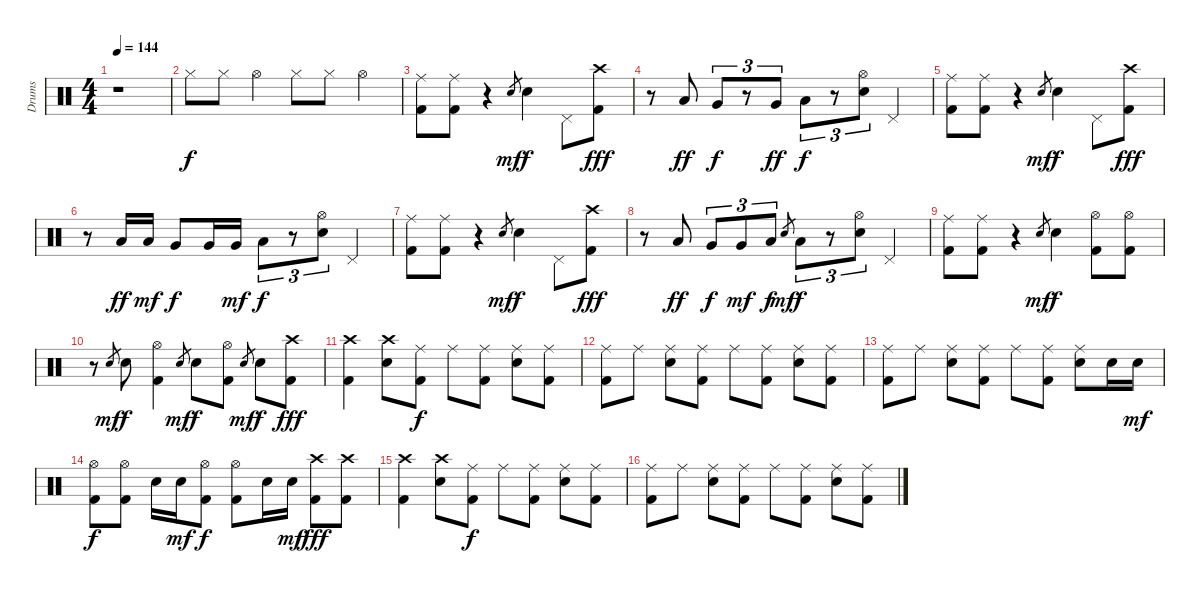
\track ("Drums" "Drums") {instrument percussion}
\staff {score}
\articulation defaults
\ts (4 4)
\tempo 144
\clef neutral
\ks c
r.1{dy f} |
"Hi-Hat (closed)".8 "Hi-Hat (closed)".8 "Hi-Hat (open)".4 "Hi-Hat (closed)".8 "Hi-Hat (closed)".8 "Hi-Hat (open)".4 |
("Ride (middle)" "Kick (hit) 2").8 ("Ride (middle)" "Kick (hit) 2").8 r.4 "Snare (hit)".8{gr dy mf} "Snare (hit) 2".4{dy f} "Pedal Hi-Hat (hit)".8 ("Crash high (hit)" "Kick (hit) 2").8{dy fff} |
r.8 "Low Tom (hit)".8{dy ff} "Very Low Tom (hit)".8{tu (3 2) dy f} r.8{tu (3 2)} "Very Low Tom (hit)".8{tu (3 2) dy ff} "Low Floor Tom (hit)".8{tu (3 2) dy f} r.8{tu (3 2)} ("Hi-Hat (open)" "Snare (hit) 2").8{tu (3 2)} "Pedal Hi-Hat (hit)".4 |
("Ride (middle)" "Kick (hit) 2").8 ("Ride (middle)" "Kick (hit) 2").8 r.4 "Snare (hit)".8{gr dy mf} "Snare (hit) 2".4{dy f} "Pedal Hi-Hat (hit)".8 ("Crash high (hit)" "Kick (hit) 2").8{dy fff} |
r.8 "Low Tom (hit)".16{dy ff} "Low Tom (hit)".16{dy mf} "Very Low Tom (hit)".8{dy f} "Very Low Tom (hit)".16 "Very Low Tom (hit)".16{dy mf} "Low Floor Tom (hit)".8{tu (3 2) dy f} r.8{tu (3 2)} ("Hi-Hat (open)" "Snare (hit) 2").8{tu (3 2)} "Pedal Hi-Hat (hit)".4 |
("Ride (middle)" "Kick (hit) 2").8 ("Ride (middle)" "Kick (hit) 2").8 r.4 "Snare (hit)".8{gr dy mf} "Snare (hit) 2".4{dy f} "Pedal Hi-Hat (hit)".8 ("Crash high (hit)" "Kick (hit) 2").8{dy fff} |
r.8 "Low Tom (hit)".8{dy ff} "Very Low Tom (hit)".8{tu (3 2) dy f} "Very Low Tom (hit)".8{tu (3 2) dy mf} "Low Floor Tom (hit)".8{tu (3 2) dy f} "Snare (hit)".8{gr dy mf} "Low Floor Tom (hit)".8{tu (3 2) dy f} r.8{tu (3 2)} ("Hi-Hat (open)" "Snare (hit) 2").8{tu (3 2)} "Pedal Hi-Hat (hit)".4 |
("Ride (middle)" "Kick (hit) 2").8 ("Ride (middle)" "Kick (hit) 2").8 r.4 "Snare (hit)".8{gr dy mf} "Snare (hit) 2".4{dy f} ("Hi-Hat (open)" "Kick (hit) 2").8 ("Hi-Hat (open)" "Kick (hit) 2").8 |
r.8 "Snare (hit)".8{gr dy mf} "Snare (hit) 2".8{dy f} ("Hi-Hat (open)" "Kick (hit) 2").4 "Snare (hit)".8{gr dy mf} "Snare (hit) 2".8{dy f} ("Hi-Hat (open)" "Kick (hit) 2").8 "Snare (hit)".8{gr dy mf} "Snare (hit) 2".8{dy f} ("Crash high (hit)" "Kick (hit) 2").8{dy fff} |
("Crash high (hit)" "Kick (hit) 2").4 ("Crash high (hit)" "Snare (hit) 2").8 ("Ride (middle)" "Kick (hit) 2").8{dy f} "Ride (middle)".8 ("Ride (middle)" "Kick (hit) 2").8 ("Ride (middle)" "Snare (hit) 2").8 ("Ride (middle)" "Kick (hit) 2").8 |
("Ride (middle)" "Kick (hit) 2").8 "Ride (middle)".8 ("Ride (middle)" "Snare (hit) 2").8 ("Ride (middle)" "Kick (hit) 2").8 "Ride (middle)".8 ("Ride (middle)" "Kick (hit) 2").8 ("Ride (middle)" "Snare (hit) 2").8 ("Ride (middle)" "Kick (hit) 2").8 |
("Ride (middle)" "Kick (hit) 2").8 "Ride (middle)".8 ("Ride (middle)" "Snare (hit) 2").8 ("Ride (middle)" "Kick (hit) 2").8 "Ride (middle)".8 ("Ride (middle)" "Kick (hit) 2").8 ("Ride (middle)" "Snare (hit) 2").8 "Snare (hit) 2".16 "Snare (hit) 2".16{dy mf} |
("Hi-Hat (open)" "Kick (hit) 2").8{dy f} ("Hi-Hat (open)" "Kick (hit) 2").8 "Snare (hit) 2".16 "Snare (hit) 2".16{dy mf} ("Hi-Hat (open)" "Kick (hit) 2").8{dy f} ("Hi-Hat (open)" "Kick (hit) 2").8 "Snare (hit) 2".16 "Snare (hit) 2".16{dy mf} ("Crash high (hit)" "Kick (hit) 2").8{dy fff} ("Crash high (hit)" "Kick (hit) 2").8 |
("Crash high (hit)" "Kick (hit) 2").4 ("Crash high (hit)" "Snare (hit) 2").8 ("Ride (middle)" "Kick (hit) 2").8{dy f} "Ride (middle)".8 ("Ride (middle)" "Kick (hit) 2").8 ("Ride (middle)" "Snare (hit) 2").8 ("Ride (middle)" "Kick (hit) 2").8 |
("Ride (middle)" "Kick (hit) 2").8 "Ride (middle)".8 ("Ride (middle)" "Snare (hit) 2").8 ("Ride (middle)" "Kick (hit) 2").8 "Ride (middle)".8 ("Ride (middle)" "Kick (hit) 2").8 ("Ride (middle)" "Snare (hit) 2").8 ("Ride (middle)" "Kick (hit) 2").8
